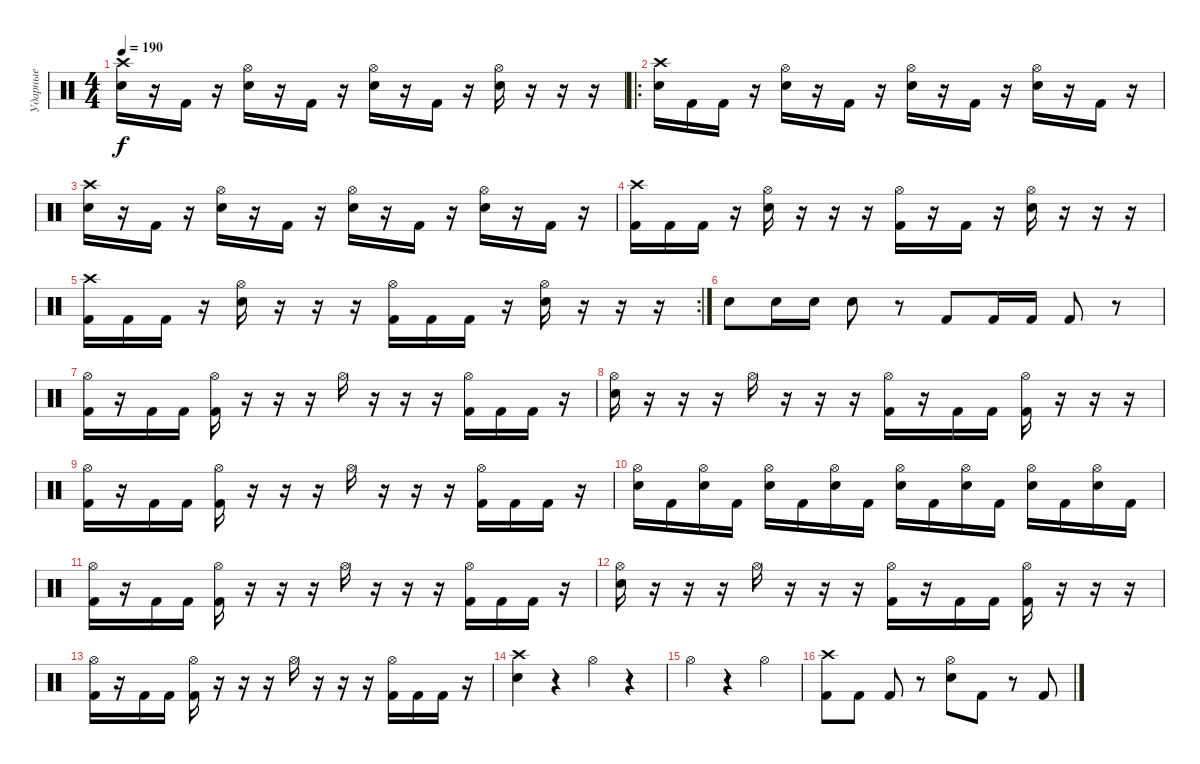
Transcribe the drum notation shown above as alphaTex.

\track ("Ударные" "Ударные") {instrument percussion}
\staff {score}
\articulation defaults
\ts (4 4)
\tempo 190
\clef neutral
\ks c
("Crash high (hit)" "Electric Snare (hit)").16{dy f} r.16 "Kick (hit) 2".16 r.16 ("Hi-Hat (open)" "Electric Snare (hit)").16 r.16 "Kick (hit) 2".16 r.16 ("Hi-Hat (open)" "Electric Snare (hit)").16 r.16 "Kick (hit) 2".16 r.16 ("Hi-Hat (open)" "Electric Snare (hit)").16 r.16 r.16 r.16 |
\ro
("Crash high (hit)" "Electric Snare (hit)").16 "Kick (hit) 2".16 "Kick (hit) 2".16 r.16 ("Hi-Hat (open)" "Electric Snare (hit)").16 r.16 "Kick (hit) 2".16 r.16 ("Hi-Hat (open)" "Electric Snare (hit)").16 r.16 "Kick (hit) 2".16 r.16 ("Hi-Hat (open)" "Electric Snare (hit)").16 r.16 "Kick (hit) 2".16 r.16 |
("Crash high (hit)" "Electric Snare (hit)").16 r.16 "Kick (hit) 2".16 r.16 ("Hi-Hat (open)" "Electric Snare (hit)").16 r.16 "Kick (hit) 2".16 r.16 ("Hi-Hat (open)" "Electric Snare (hit)").16 r.16 "Kick (hit) 2".16 r.16 ("Hi-Hat (open)" "Electric Snare (hit)").16 r.16 "Kick (hit) 2".16 r.16 |
("Crash high (hit)" "Kick (hit) 2").16 "Kick (hit) 2".16 "Kick (hit) 2".16 r.16 ("Hi-Hat (open)" "Electric Snare (hit)").16 r.16 r.16 r.16 ("Hi-Hat (open)" "Kick (hit) 2").16 r.16 "Kick (hit) 2".16 r.16 ("Hi-Hat (open)" "Electric Snare (hit)").16 r.16 r.16 r.16 |
\rc 2
("Crash high (hit)" "Kick (hit) 2").16 "Kick (hit) 2".16 "Kick (hit) 2".16 r.16 ("Hi-Hat (open)" "Electric Snare (hit)").16 r.16 r.16 r.16 ("Hi-Hat (open)" "Kick (hit) 2").16 "Kick (hit) 2".16 "Kick (hit) 2".16 r.16 ("Hi-Hat (open)" "Electric Snare (hit)").16 r.16 r.16 r.16 |
"Electric Snare (hit)".8 "Electric Snare (hit)".16 "Electric Snare (hit)".16 "Electric Snare (hit)".8 r.8 "Kick (hit) 2".8 "Kick (hit) 2".16 "Kick (hit) 2".16 "Kick (hit) 2".8 r.8 |
("Hi-Hat (open)" "Kick (hit) 2").16 r.16 "Kick (hit) 2".16 "Kick (hit) 2".16 ("Hi-Hat (open)" "Kick (hit) 2").16 r.16 r.16 r.16 "Hi-Hat (open)".16 r.16 r.16 r.16 ("Hi-Hat (open)" "Kick (hit) 2").16 "Kick (hit) 2".16 "Kick (hit) 2".16 r.16 |
("Hi-Hat (open)" "Electric Snare (hit)").16 r.16 r.16 r.16 "Hi-Hat (open)".16 r.16 r.16 r.16 ("Hi-Hat (open)" "Kick (hit) 2").16 r.16 "Kick (hit) 2".16 "Kick (hit) 2".16 ("Hi-Hat (open)" "Kick (hit) 2").16 r.16 r.16 r.16 |
("Hi-Hat (open)" "Kick (hit) 2").16 r.16 "Kick (hit) 2".16 "Kick (hit) 2".16 ("Hi-Hat (open)" "Kick (hit) 2").16 r.16 r.16 r.16 "Hi-Hat (open)".16 r.16 r.16 r.16 ("Hi-Hat (open)" "Kick (hit) 2").16 "Kick (hit) 2".16 "Kick (hit) 2".16 r.16 |
("Hi-Hat (open)" "Electric Snare (hit)").16 "Kick (hit) 2".16 ("Hi-Hat (open)" "Electric Snare (hit)").16 "Kick (hit) 2".16 ("Hi-Hat (open)" "Electric Snare (hit)").16 "Kick (hit) 2".16 ("Hi-Hat (open)" "Electric Snare (hit)").16 "Kick (hit) 2".16 ("Hi-Hat (open)" "Electric Snare (hit)").16 "Kick (hit) 2".16 ("Hi-Hat (open)" "Electric Snare (hit)").16 "Kick (hit) 2".16 ("Hi-Hat (open)" "Electric Snare (hit)").16 "Kick (hit) 2".16 ("Hi-Hat (open)" "Electric Snare (hit)").16 "Kick (hit) 2".16 |
("Hi-Hat (open)" "Kick (hit) 2").16 r.16 "Kick (hit) 2".16 "Kick (hit) 2".16 ("Hi-Hat (open)" "Kick (hit) 2").16 r.16 r.16 r.16 "Hi-Hat (open)".16 r.16 r.16 r.16 ("Hi-Hat (open)" "Kick (hit) 2").16 "Kick (hit) 2".16 "Kick (hit) 2".16 r.16 |
("Hi-Hat (open)" "Electric Snare (hit)").16 r.16 r.16 r.16 "Hi-Hat (open)".16 r.16 r.16 r.16 ("Hi-Hat (open)" "Kick (hit) 2").16 r.16 "Kick (hit) 2".16 "Kick (hit) 2".16 ("Hi-Hat (open)" "Kick (hit) 2").16 r.16 r.16 r.16 |
("Hi-Hat (open)" "Kick (hit) 2").16 r.16 "Kick (hit) 2".16 "Kick (hit) 2".16 ("Hi-Hat (open)" "Kick (hit) 2").16 r.16 r.16 r.16 "Hi-Hat (open)".16 r.16 r.16 r.16 ("Hi-Hat (open)" "Kick (hit) 2").16 "Kick (hit) 2".16 "Kick (hit) 2".16 r.16 |
("Crash high (hit)" "Electric Snare (hit)").4 r.4 "Hi-Hat (open)".4 r.4 |
"Hi-Hat (open)".4 r.4 "Hi-Hat (open)".4 |
("Crash high (hit)" "Kick (hit) 2").8 "Kick (hit) 2".8 "Kick (hit) 2".8 r.8 ("Hi-Hat (open)" "Electric Snare (hit)").8 "Kick (hit) 2".8 r.8 "Kick (hit) 2".8
